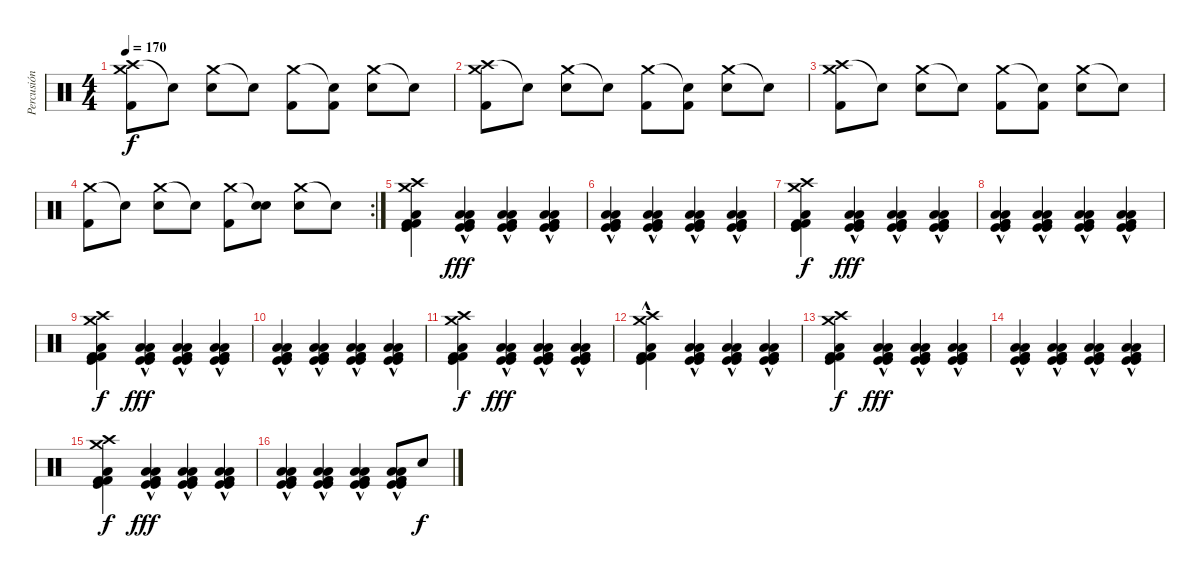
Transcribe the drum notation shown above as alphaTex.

\track ("Percusión" "Percusión") {instrument percussion}
\staff {score}
\articulation defaults
\ts (4 4)
\tempo 170
\clef neutral
\ks c
("Crash high (hit)" "Crash medium (hit)" "Kick (hit) 2").8{dy f} "Snare (hit)"{t}.8 ("Crash medium (hit)" "Snare (hit) 2").8 "Snare (hit)"{t}.8 ("Crash medium (hit)" "Kick (hit) 2").8 ("Snare (hit)"{t} "Kick (hit) 2").8 ("Crash medium (hit)" "Electric Snare (hit)").8 "Snare (hit)"{t}.8 |
("Crash high (hit)" "Crash medium (hit)" "Kick (hit) 2").8 "Snare (hit)"{t}.8 ("Crash medium (hit)" "Electric Snare (hit)").8 "Snare (hit)"{t}.8 ("Crash medium (hit)" "Kick (hit) 2").8 ("Snare (hit)"{t} "Kick (hit) 2").8 ("Crash medium (hit)" "Electric Snare (hit)").8 "Snare (hit)"{t}.8 |
("Crash high (hit)" "Crash medium (hit)" "Kick (hit) 2").8 "Snare (hit)"{t}.8 ("Crash medium (hit)" "Snare (hit) 2").8 "Snare (hit)"{t}.8 ("Crash medium (hit)" "Kick (hit) 2").8 ("Snare (hit)"{t} "Kick (hit) 2").8 ("Crash medium (hit)" "Electric Snare (hit)").8 "Snare (hit)"{t}.8 |
\rc 2
("Crash medium (hit)" "Kick (hit) 2").8 "Snare (hit)"{t}.8 ("Crash medium (hit)" "Electric Snare (hit)").8 "Snare (hit)"{t}.8 ("Crash medium (hit)" "Kick (hit) 2").8 ("Snare (hit)"{t} "Electric Snare (hit)").8 ("Crash medium (hit)" "Electric Snare (hit)").8 "Snare (hit)"{t}.8 |
("Crash medium (hit)" "Crash high (hit)" "Kick (hit)" "Kick (hit) 2" "Kick (hit) 2" "Low Floor Tom (hit)").4 ("Low Tom (hit)"{hac} "Kick (hit)"{hac} "Kick (hit)"{hac} "Kick (hit) 2"{hac} "Kick (hit) 2"{hac} "Low Floor Tom (hit)"{hac}).4{dy fff} ("Low Tom (hit)"{hac} "Kick (hit)"{hac} "Kick (hit)"{hac} "Kick (hit) 2"{hac} "Kick (hit) 2"{hac} "Low Floor Tom (hit)"{hac}).4 ("Low Tom (hit)"{hac} "Kick (hit)"{hac} "Kick (hit)"{hac} "Kick (hit) 2"{hac} "Kick (hit) 2"{hac} "Low Floor Tom (hit)"{hac}).4 |
("Low Tom (hit)"{hac} "Kick (hit)"{hac} "Kick (hit)"{hac} "Kick (hit) 2"{hac} "Kick (hit) 2"{hac} "Low Floor Tom (hit)"{hac}).4 ("Low Tom (hit)"{hac} "Kick (hit)"{hac} "Kick (hit)"{hac} "Kick (hit) 2"{hac} "Kick (hit) 2"{hac} "Low Floor Tom (hit)"{hac}).4 ("Low Tom (hit)"{hac} "Kick (hit)"{hac} "Kick (hit)"{hac} "Kick (hit) 2"{hac} "Kick (hit) 2"{hac} "Low Floor Tom (hit)"{hac}).4 ("Low Tom (hit)"{hac} "Kick (hit)"{hac} "Kick (hit)"{hac} "Kick (hit) 2"{hac} "Kick (hit) 2"{hac} "Low Floor Tom (hit)"{hac}).4 |
("Crash medium (hit)" "Crash high (hit)" "Kick (hit)" "Kick (hit) 2" "Kick (hit) 2" "Low Floor Tom (hit)").4{dy f} ("Low Tom (hit)"{hac} "Kick (hit)"{hac} "Kick (hit)"{hac} "Kick (hit) 2"{hac} "Kick (hit) 2"{hac} "Low Floor Tom (hit)"{hac}).4{dy fff} ("Low Tom (hit)"{hac} "Kick (hit)"{hac} "Kick (hit)"{hac} "Kick (hit) 2"{hac} "Kick (hit) 2"{hac} "Low Floor Tom (hit)"{hac}).4 ("Low Tom (hit)"{hac} "Kick (hit)"{hac} "Kick (hit)"{hac} "Kick (hit) 2"{hac} "Kick (hit) 2"{hac} "Low Floor Tom (hit)"{hac}).4 |
("Low Tom (hit)"{hac} "Kick (hit)"{hac} "Kick (hit)"{hac} "Kick (hit) 2"{hac} "Kick (hit) 2"{hac} "Low Floor Tom (hit)"{hac}).4 ("Low Tom (hit)"{hac} "Kick (hit)"{hac} "Kick (hit)"{hac} "Kick (hit) 2"{hac} "Kick (hit) 2"{hac} "Low Floor Tom (hit)"{hac}).4 ("Low Tom (hit)"{hac} "Kick (hit)"{hac} "Kick (hit)"{hac} "Kick (hit) 2"{hac} "Kick (hit) 2"{hac} "Low Floor Tom (hit)"{hac}).4 ("Low Tom (hit)"{hac} "Kick (hit)"{hac} "Kick (hit)"{hac} "Kick (hit) 2"{hac} "Kick (hit) 2"{hac} "Low Floor Tom (hit)"{hac}).4 |
("Crash medium (hit)" "Crash high (hit)" "Kick (hit)" "Kick (hit) 2" "Kick (hit) 2" "Low Floor Tom (hit)").4{dy f} ("Low Tom (hit)"{hac} "Kick (hit)"{hac} "Kick (hit)"{hac} "Kick (hit) 2"{hac} "Kick (hit) 2"{hac} "Low Floor Tom (hit)"{hac}).4{dy fff} ("Low Tom (hit)"{hac} "Kick (hit)"{hac} "Kick (hit)"{hac} "Kick (hit) 2"{hac} "Kick (hit) 2"{hac} "Low Floor Tom (hit)"{hac}).4 ("Low Tom (hit)"{hac} "Kick (hit)"{hac} "Kick (hit)"{hac} "Kick (hit) 2"{hac} "Kick (hit) 2"{hac} "Low Floor Tom (hit)"{hac}).4 |
("Low Tom (hit)"{hac} "Kick (hit)"{hac} "Kick (hit)"{hac} "Kick (hit) 2"{hac} "Kick (hit) 2"{hac} "Low Floor Tom (hit)"{hac}).4 ("Low Tom (hit)"{hac} "Kick (hit)"{hac} "Kick (hit)"{hac} "Kick (hit) 2"{hac} "Kick (hit) 2"{hac} "Low Floor Tom (hit)"{hac}).4 ("Low Tom (hit)"{hac} "Kick (hit)"{hac} "Kick (hit)"{hac} "Kick (hit) 2"{hac} "Kick (hit) 2"{hac} "Low Floor Tom (hit)"{hac}).4 ("Low Tom (hit)"{hac} "Kick (hit)"{hac} "Kick (hit)"{hac} "Kick (hit) 2"{hac} "Kick (hit) 2"{hac} "Low Floor Tom (hit)"{hac}).4 |
("Crash medium (hit)" "Crash high (hit)" "Kick (hit)" "Kick (hit) 2" "Kick (hit) 2" "Low Floor Tom (hit)").4{dy f} ("Low Tom (hit)"{hac} "Kick (hit)"{hac} "Kick (hit)"{hac} "Kick (hit) 2"{hac} "Kick (hit) 2"{hac} "Low Floor Tom (hit)"{hac}).4{dy fff} ("Low Tom (hit)"{hac} "Kick (hit)"{hac} "Kick (hit)"{hac} "Kick (hit) 2"{hac} "Kick (hit) 2"{hac} "Low Floor Tom (hit)"{hac}).4 ("Low Tom (hit)"{hac} "Kick (hit)"{hac} "Kick (hit)"{hac} "Kick (hit) 2"{hac} "Kick (hit) 2"{hac} "Low Floor Tom (hit)"{hac}).4 |
("Crash medium (hit)"{hac} "Crash high (hit)"{hac} "Kick (hit)"{hac} "Kick (hit) 2"{hac} "Kick (hit) 2"{hac} "Low Floor Tom (hit)"{hac}).4 ("Low Tom (hit)"{hac} "Kick (hit)"{hac} "Kick (hit)"{hac} "Kick (hit) 2"{hac} "Kick (hit) 2"{hac} "Low Floor Tom (hit)"{hac}).4 ("Low Tom (hit)"{hac} "Kick (hit)"{hac} "Kick (hit)"{hac} "Kick (hit) 2"{hac} "Kick (hit) 2"{hac} "Low Floor Tom (hit)"{hac}).4 ("Low Tom (hit)"{hac} "Kick (hit)"{hac} "Kick (hit)"{hac} "Kick (hit) 2"{hac} "Kick (hit) 2"{hac} "Low Floor Tom (hit)"{hac}).4 |
("Crash medium (hit)" "Crash high (hit)" "Kick (hit)" "Kick (hit) 2" "Kick (hit) 2" "Low Floor Tom (hit)").4{dy f} ("Low Tom (hit)"{hac} "Kick (hit)"{hac} "Kick (hit)"{hac} "Kick (hit) 2"{hac} "Kick (hit) 2"{hac} "Low Floor Tom (hit)"{hac}).4{dy fff} ("Low Tom (hit)"{hac} "Kick (hit)"{hac} "Kick (hit)"{hac} "Kick (hit) 2"{hac} "Kick (hit) 2"{hac} "Low Floor Tom (hit)"{hac}).4 ("Low Tom (hit)"{hac} "Kick (hit)"{hac} "Kick (hit)"{hac} "Kick (hit) 2"{hac} "Kick (hit) 2"{hac} "Low Floor Tom (hit)"{hac}).4 |
("Low Tom (hit)"{hac} "Kick (hit)"{hac} "Kick (hit)"{hac} "Kick (hit) 2"{hac} "Kick (hit) 2"{hac} "Low Floor Tom (hit)"{hac}).4 ("Low Tom (hit)"{hac} "Kick (hit)"{hac} "Kick (hit)"{hac} "Kick (hit) 2"{hac} "Kick (hit) 2"{hac} "Low Floor Tom (hit)"{hac}).4 ("Low Tom (hit)"{hac} "Kick (hit)"{hac} "Kick (hit)"{hac} "Kick (hit) 2"{hac} "Kick (hit) 2"{hac} "Low Floor Tom (hit)"{hac}).4 ("Low Tom (hit)"{hac} "Kick (hit)"{hac} "Kick (hit)"{hac} "Kick (hit) 2"{hac} "Kick (hit) 2"{hac} "Low Floor Tom (hit)"{hac}).4 |
("Crash medium (hit)" "Crash high (hit)" "Kick (hit)" "Kick (hit) 2" "Kick (hit) 2" "Low Floor Tom (hit)").4{dy f} ("Low Tom (hit)"{hac} "Kick (hit)"{hac} "Kick (hit)"{hac} "Kick (hit) 2"{hac} "Kick (hit) 2"{hac} "Low Floor Tom (hit)"{hac}).4{dy fff} ("Low Tom (hit)"{hac} "Kick (hit)"{hac} "Kick (hit)"{hac} "Kick (hit) 2"{hac} "Kick (hit) 2"{hac} "Low Floor Tom (hit)"{hac}).4 ("Low Tom (hit)"{hac} "Kick (hit)"{hac} "Kick (hit)"{hac} "Kick (hit) 2"{hac} "Kick (hit) 2"{hac} "Low Floor Tom (hit)"{hac}).4 |
("Low Tom (hit)"{hac} "Kick (hit)"{hac} "Kick (hit)"{hac} "Kick (hit) 2"{hac} "Kick (hit) 2"{hac} "Low Floor Tom (hit)"{hac}).4 ("Low Tom (hit)"{hac} "Kick (hit)"{hac} "Kick (hit)"{hac} "Kick (hit) 2"{hac} "Kick (hit) 2"{hac} "Low Floor Tom (hit)"{hac}).4 ("Low Tom (hit)"{hac} "Kick (hit)"{hac} "Kick (hit)"{hac} "Kick (hit) 2"{hac} "Kick (hit) 2"{hac} "Low Floor Tom (hit)"{hac}).4 ("Low Tom (hit)"{hac} "Kick (hit)"{hac} "Kick (hit)"{hac} "Kick (hit) 2"{hac} "Kick (hit) 2"{hac} "Low Floor Tom (hit)"{hac}).8 "Electric Snare (hit)".8{dy f}
